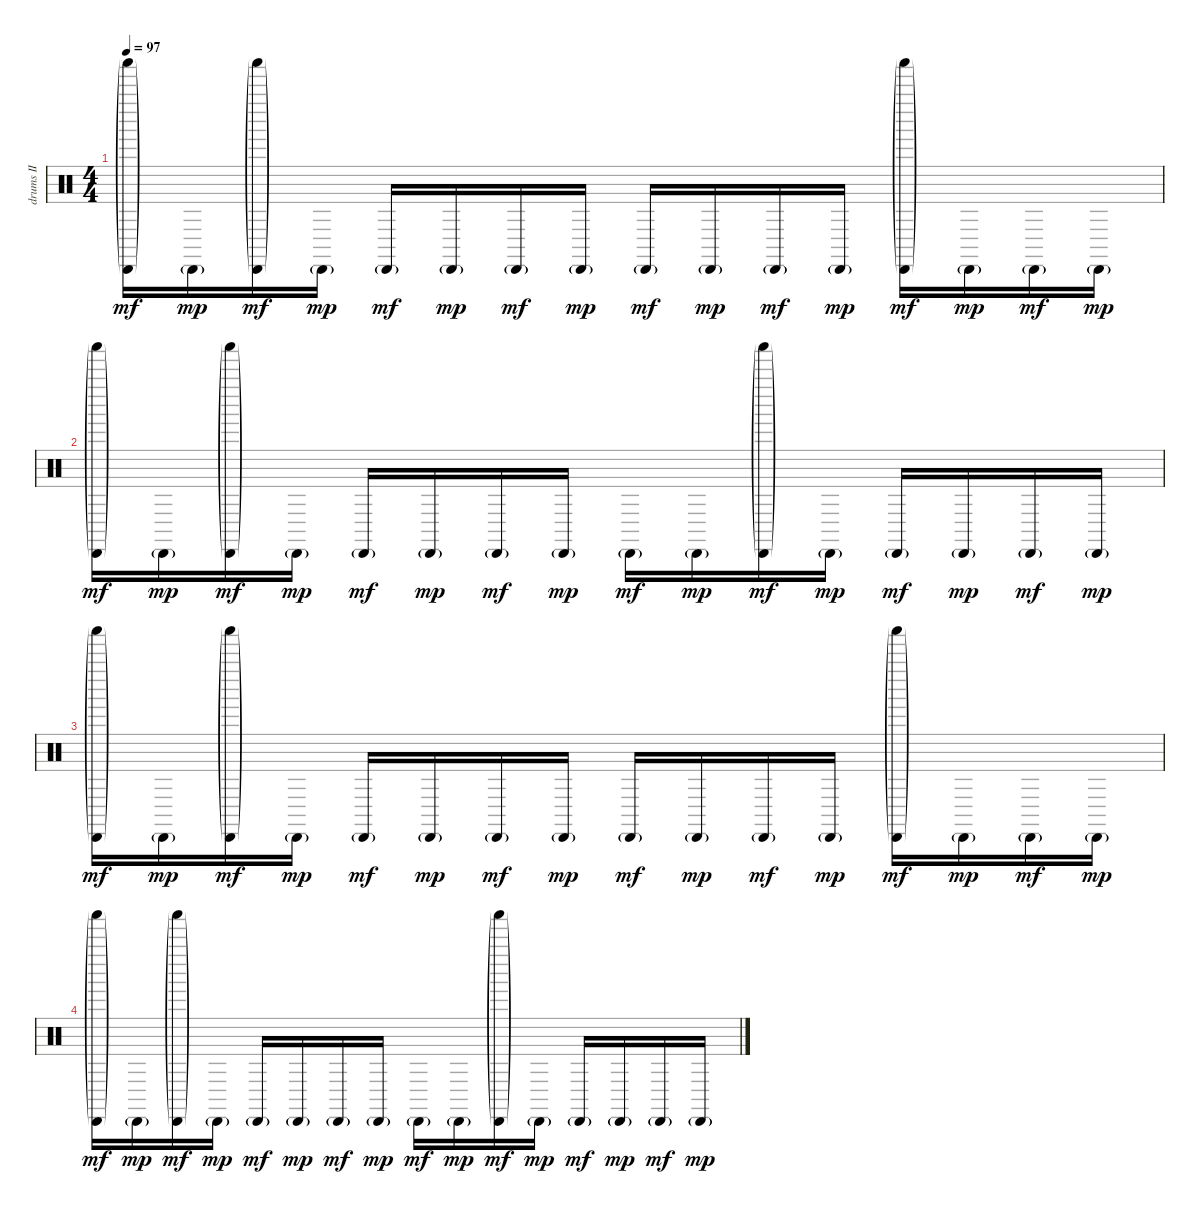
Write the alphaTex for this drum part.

\track ("drums II" "drums II") {instrument percussion}
\staff {score}
\articulation defaults
\ts (4 4)
\tempo 97
\clef neutral
\ks c
("Shaker (hit)"{g} "Cabasa (hit)"{g}).16{dy mf} "Cabasa (hit)"{g}.16{dy mp} ("Shaker (hit)"{g} "Cabasa (hit)"{g}).16{dy mf} "Cabasa (hit)"{g}.16{dy mp} "Cabasa (hit)"{g}.16{dy mf} "Cabasa (hit)"{g}.16{dy mp} "Cabasa (hit)"{g}.16{dy mf} "Cabasa (hit)"{g}.16{dy mp} "Cabasa (hit)"{g}.16{dy mf} "Cabasa (hit)"{g}.16{dy mp} "Cabasa (hit)"{g}.16{dy mf} "Cabasa (hit)"{g}.16{dy mp} ("Shaker (hit)"{g} "Cabasa (hit)"{g}).16{dy mf} "Cabasa (hit)"{g}.16{dy mp} "Cabasa (hit)"{g}.16{dy mf} "Cabasa (hit)"{g}.16{dy mp} |
("Shaker (hit)"{g} "Cabasa (hit)"{g}).16{dy mf} "Cabasa (hit)"{g}.16{dy mp} ("Shaker (hit)"{g} "Cabasa (hit)"{g}).16{dy mf} "Cabasa (hit)"{g}.16{dy mp} "Cabasa (hit)"{g}.16{dy mf} "Cabasa (hit)"{g}.16{dy mp} "Cabasa (hit)"{g}.16{dy mf} "Cabasa (hit)"{g}.16{dy mp} "Cabasa (hit)"{g}.16{dy mf} "Cabasa (hit)"{g}.16{dy mp} ("Shaker (hit)"{g} "Cabasa (hit)"{g}).16{dy mf} "Cabasa (hit)"{g}.16{dy mp} "Cabasa (hit)"{g}.16{dy mf} "Cabasa (hit)"{g}.16{dy mp} "Cabasa (hit)"{g}.16{dy mf} "Cabasa (hit)"{g}.16{dy mp} |
("Shaker (hit)"{g} "Cabasa (hit)"{g}).16{dy mf} "Cabasa (hit)"{g}.16{dy mp} ("Shaker (hit)"{g} "Cabasa (hit)"{g}).16{dy mf} "Cabasa (hit)"{g}.16{dy mp} "Cabasa (hit)"{g}.16{dy mf} "Cabasa (hit)"{g}.16{dy mp} "Cabasa (hit)"{g}.16{dy mf} "Cabasa (hit)"{g}.16{dy mp} "Cabasa (hit)"{g}.16{dy mf} "Cabasa (hit)"{g}.16{dy mp} "Cabasa (hit)"{g}.16{dy mf} "Cabasa (hit)"{g}.16{dy mp} ("Shaker (hit)"{g} "Cabasa (hit)"{g}).16{dy mf} "Cabasa (hit)"{g}.16{dy mp} "Cabasa (hit)"{g}.16{dy mf} "Cabasa (hit)"{g}.16{dy mp} |
("Shaker (hit)"{g} "Cabasa (hit)"{g}).16{dy mf} "Cabasa (hit)"{g}.16{dy mp} ("Shaker (hit)"{g} "Cabasa (hit)"{g}).16{dy mf} "Cabasa (hit)"{g}.16{dy mp} "Cabasa (hit)"{g}.16{dy mf} "Cabasa (hit)"{g}.16{dy mp} "Cabasa (hit)"{g}.16{dy mf} "Cabasa (hit)"{g}.16{dy mp} "Cabasa (hit)"{g}.16{dy mf} "Cabasa (hit)"{g}.16{dy mp} ("Shaker (hit)"{g} "Cabasa (hit)"{g}).16{dy mf} "Cabasa (hit)"{g}.16{dy mp} "Cabasa (hit)"{g}.16{dy mf} "Cabasa (hit)"{g}.16{dy mp} "Cabasa (hit)"{g}.16{dy mf} "Cabasa (hit)"{g}.16{dy mp}
